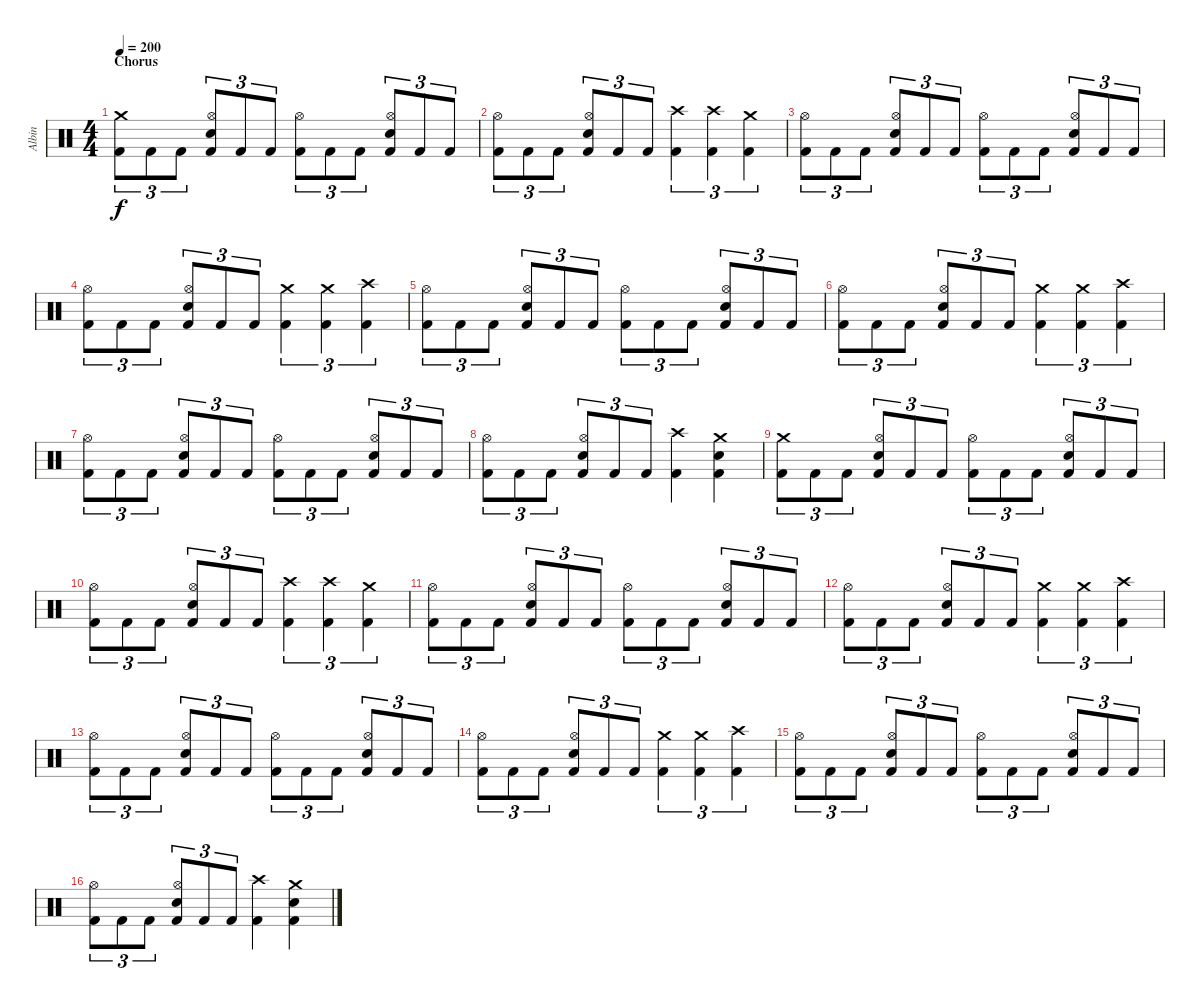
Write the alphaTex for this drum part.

\track ("Albin" "Albin") {instrument percussion}
\staff {score}
\articulation defaults
\ts (4 4)
\section ("" "Chorus")
\tempo 200
\clef neutral
\ks c
("Crash medium (hit)" "Kick (hit) 2").8{tu (3 2) dy f} "Kick (hit) 2".8{tu (3 2)} "Kick (hit) 2".8{tu (3 2)} ("Hi-Hat (open)" "Electric Snare (hit)" "Kick (hit) 2").8{tu (3 2)} "Kick (hit) 2".8{tu (3 2)} "Kick (hit) 2".8{tu (3 2)} ("Hi-Hat (open)" "Kick (hit) 2").8{tu (3 2)} "Kick (hit) 2".8{tu (3 2)} "Kick (hit) 2".8{tu (3 2)} ("Hi-Hat (open)" "Electric Snare (hit)" "Kick (hit) 2").8{tu (3 2)} "Kick (hit) 2".8{tu (3 2)} "Kick (hit) 2".8{tu (3 2)} |
("Hi-Hat (open)" "Kick (hit) 2").8{tu (3 2)} "Kick (hit) 2".8{tu (3 2)} "Kick (hit) 2".8{tu (3 2)} ("Hi-Hat (open)" "Electric Snare (hit)" "Kick (hit) 2").8{tu (3 2)} "Kick (hit) 2".8{tu (3 2)} "Kick (hit) 2".8{tu (3 2)} ("Crash high (hit)" "Kick (hit) 2").4{tu (3 2)} ("Crash high (hit)" "Kick (hit) 2").4{tu (3 2)} ("Crash medium (hit)" "Kick (hit) 2").4{tu (3 2)} |
("Hi-Hat (open)" "Kick (hit) 2").8{tu (3 2)} "Kick (hit) 2".8{tu (3 2)} "Kick (hit) 2".8{tu (3 2)} ("Hi-Hat (open)" "Electric Snare (hit)" "Kick (hit) 2").8{tu (3 2)} "Kick (hit) 2".8{tu (3 2)} "Kick (hit) 2".8{tu (3 2)} ("Hi-Hat (open)" "Kick (hit) 2").8{tu (3 2)} "Kick (hit) 2".8{tu (3 2)} "Kick (hit) 2".8{tu (3 2)} ("Hi-Hat (open)" "Electric Snare (hit)" "Kick (hit) 2").8{tu (3 2)} "Kick (hit) 2".8{tu (3 2)} "Kick (hit) 2".8{tu (3 2)} |
("Hi-Hat (open)" "Kick (hit) 2").8{tu (3 2)} "Kick (hit) 2".8{tu (3 2)} "Kick (hit) 2".8{tu (3 2)} ("Hi-Hat (open)" "Electric Snare (hit)" "Kick (hit) 2").8{tu (3 2)} "Kick (hit) 2".8{tu (3 2)} "Kick (hit) 2".8{tu (3 2)} ("Crash medium (hit)" "Kick (hit) 2").4{tu (3 2)} ("Crash medium (hit)" "Kick (hit) 2").4{tu (3 2)} ("Crash high (hit)" "Kick (hit) 2").4{tu (3 2)} |
("Hi-Hat (open)" "Kick (hit) 2").8{tu (3 2)} "Kick (hit) 2".8{tu (3 2)} "Kick (hit) 2".8{tu (3 2)} ("Hi-Hat (open)" "Electric Snare (hit)" "Kick (hit) 2").8{tu (3 2)} "Kick (hit) 2".8{tu (3 2)} "Kick (hit) 2".8{tu (3 2)} ("Hi-Hat (open)" "Kick (hit) 2").8{tu (3 2)} "Kick (hit) 2".8{tu (3 2)} "Kick (hit) 2".8{tu (3 2)} ("Hi-Hat (open)" "Electric Snare (hit)" "Kick (hit) 2").8{tu (3 2)} "Kick (hit) 2".8{tu (3 2)} "Kick (hit) 2".8{tu (3 2)} |
("Hi-Hat (open)" "Kick (hit) 2").8{tu (3 2)} "Kick (hit) 2".8{tu (3 2)} "Kick (hit) 2".8{tu (3 2)} ("Hi-Hat (open)" "Electric Snare (hit)" "Kick (hit) 2").8{tu (3 2)} "Kick (hit) 2".8{tu (3 2)} "Kick (hit) 2".8{tu (3 2)} ("Crash medium (hit)" "Kick (hit) 2").4{tu (3 2)} ("Crash medium (hit)" "Kick (hit) 2").4{tu (3 2)} ("Crash high (hit)" "Kick (hit) 2").4{tu (3 2)} |
("Hi-Hat (open)" "Kick (hit) 2").8{tu (3 2)} "Kick (hit) 2".8{tu (3 2)} "Kick (hit) 2".8{tu (3 2)} ("Hi-Hat (open)" "Electric Snare (hit)" "Kick (hit) 2").8{tu (3 2)} "Kick (hit) 2".8{tu (3 2)} "Kick (hit) 2".8{tu (3 2)} ("Hi-Hat (open)" "Kick (hit) 2").8{tu (3 2)} "Kick (hit) 2".8{tu (3 2)} "Kick (hit) 2".8{tu (3 2)} ("Hi-Hat (open)" "Electric Snare (hit)" "Kick (hit) 2").8{tu (3 2)} "Kick (hit) 2".8{tu (3 2)} "Kick (hit) 2".8{tu (3 2)} |
("Hi-Hat (open)" "Kick (hit) 2").8{tu (3 2)} "Kick (hit) 2".8{tu (3 2)} "Kick (hit) 2".8{tu (3 2)} ("Hi-Hat (open)" "Electric Snare (hit)" "Kick (hit) 2").8{tu (3 2)} "Kick (hit) 2".8{tu (3 2)} "Kick (hit) 2".8{tu (3 2)} ("Crash high (hit)" "Kick (hit) 2").4 ("Crash medium (hit)" "Electric Snare (hit)" "Kick (hit) 2").4 |
("Crash medium (hit)" "Kick (hit) 2").8{tu (3 2)} "Kick (hit) 2".8{tu (3 2)} "Kick (hit) 2".8{tu (3 2)} ("Hi-Hat (open)" "Electric Snare (hit)" "Kick (hit) 2").8{tu (3 2)} "Kick (hit) 2".8{tu (3 2)} "Kick (hit) 2".8{tu (3 2)} ("Hi-Hat (open)" "Kick (hit) 2").8{tu (3 2)} "Kick (hit) 2".8{tu (3 2)} "Kick (hit) 2".8{tu (3 2)} ("Hi-Hat (open)" "Electric Snare (hit)" "Kick (hit) 2").8{tu (3 2)} "Kick (hit) 2".8{tu (3 2)} "Kick (hit) 2".8{tu (3 2)} |
("Hi-Hat (open)" "Kick (hit) 2").8{tu (3 2)} "Kick (hit) 2".8{tu (3 2)} "Kick (hit) 2".8{tu (3 2)} ("Hi-Hat (open)" "Electric Snare (hit)" "Kick (hit) 2").8{tu (3 2)} "Kick (hit) 2".8{tu (3 2)} "Kick (hit) 2".8{tu (3 2)} ("Crash high (hit)" "Kick (hit) 2").4{tu (3 2)} ("Crash high (hit)" "Kick (hit) 2").4{tu (3 2)} ("Crash medium (hit)" "Kick (hit) 2").4{tu (3 2)} |
("Hi-Hat (open)" "Kick (hit) 2").8{tu (3 2)} "Kick (hit) 2".8{tu (3 2)} "Kick (hit) 2".8{tu (3 2)} ("Hi-Hat (open)" "Electric Snare (hit)" "Kick (hit) 2").8{tu (3 2)} "Kick (hit) 2".8{tu (3 2)} "Kick (hit) 2".8{tu (3 2)} ("Hi-Hat (open)" "Kick (hit) 2").8{tu (3 2)} "Kick (hit) 2".8{tu (3 2)} "Kick (hit) 2".8{tu (3 2)} ("Hi-Hat (open)" "Electric Snare (hit)" "Kick (hit) 2").8{tu (3 2)} "Kick (hit) 2".8{tu (3 2)} "Kick (hit) 2".8{tu (3 2)} |
("Hi-Hat (open)" "Kick (hit) 2").8{tu (3 2)} "Kick (hit) 2".8{tu (3 2)} "Kick (hit) 2".8{tu (3 2)} ("Hi-Hat (open)" "Electric Snare (hit)" "Kick (hit) 2").8{tu (3 2)} "Kick (hit) 2".8{tu (3 2)} "Kick (hit) 2".8{tu (3 2)} ("Crash medium (hit)" "Kick (hit) 2").4{tu (3 2)} ("Crash medium (hit)" "Kick (hit) 2").4{tu (3 2)} ("Crash high (hit)" "Kick (hit) 2").4{tu (3 2)} |
("Hi-Hat (open)" "Kick (hit) 2").8{tu (3 2)} "Kick (hit) 2".8{tu (3 2)} "Kick (hit) 2".8{tu (3 2)} ("Hi-Hat (open)" "Electric Snare (hit)" "Kick (hit) 2").8{tu (3 2)} "Kick (hit) 2".8{tu (3 2)} "Kick (hit) 2".8{tu (3 2)} ("Hi-Hat (open)" "Kick (hit) 2").8{tu (3 2)} "Kick (hit) 2".8{tu (3 2)} "Kick (hit) 2".8{tu (3 2)} ("Hi-Hat (open)" "Electric Snare (hit)" "Kick (hit) 2").8{tu (3 2)} "Kick (hit) 2".8{tu (3 2)} "Kick (hit) 2".8{tu (3 2)} |
("Hi-Hat (open)" "Kick (hit) 2").8{tu (3 2)} "Kick (hit) 2".8{tu (3 2)} "Kick (hit) 2".8{tu (3 2)} ("Hi-Hat (open)" "Electric Snare (hit)" "Kick (hit) 2").8{tu (3 2)} "Kick (hit) 2".8{tu (3 2)} "Kick (hit) 2".8{tu (3 2)} ("Crash medium (hit)" "Kick (hit) 2").4{tu (3 2)} ("Crash medium (hit)" "Kick (hit) 2").4{tu (3 2)} ("Crash high (hit)" "Kick (hit) 2").4{tu (3 2)} |
("Hi-Hat (open)" "Kick (hit) 2").8{tu (3 2)} "Kick (hit) 2".8{tu (3 2)} "Kick (hit) 2".8{tu (3 2)} ("Hi-Hat (open)" "Electric Snare (hit)" "Kick (hit) 2").8{tu (3 2)} "Kick (hit) 2".8{tu (3 2)} "Kick (hit) 2".8{tu (3 2)} ("Hi-Hat (open)" "Kick (hit) 2").8{tu (3 2)} "Kick (hit) 2".8{tu (3 2)} "Kick (hit) 2".8{tu (3 2)} ("Hi-Hat (open)" "Electric Snare (hit)" "Kick (hit) 2").8{tu (3 2)} "Kick (hit) 2".8{tu (3 2)} "Kick (hit) 2".8{tu (3 2)} |
("Hi-Hat (open)" "Kick (hit) 2").8{tu (3 2)} "Kick (hit) 2".8{tu (3 2)} "Kick (hit) 2".8{tu (3 2)} ("Hi-Hat (open)" "Electric Snare (hit)" "Kick (hit) 2").8{tu (3 2)} "Kick (hit) 2".8{tu (3 2)} "Kick (hit) 2".8{tu (3 2)} ("Crash high (hit)" "Kick (hit) 2").4 ("Crash medium (hit)" "Electric Snare (hit)" "Kick (hit) 2").4
